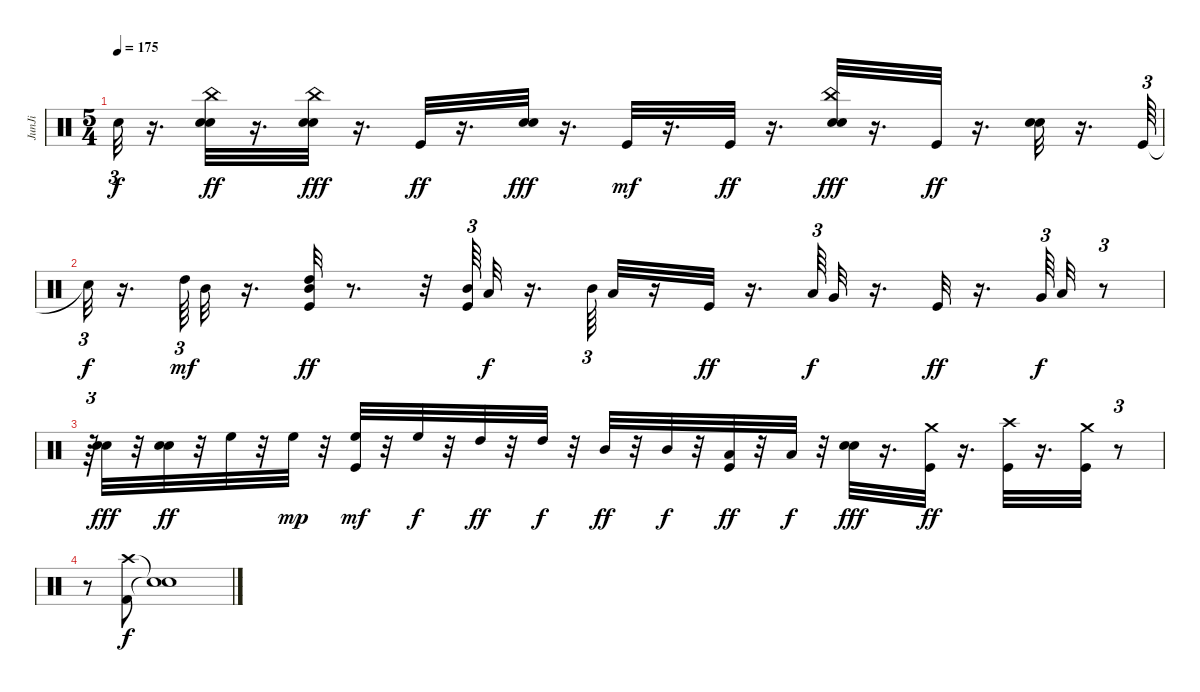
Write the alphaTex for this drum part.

\track ("JunJi" "JunJi") {instrument percussion}
\staff {score}
\articulation defaults
\ts (5 4)
\tempo 175
\clef neutral
\ks c "Snare (hit)"{t}.32{tu (3 2) dy f}
r.16{d} ("China (hit)" "Electric Snare (hit)" "Snare (hit) 2").32{dy ff} r.16{d} ("China (hit)" "Electric Snare (hit)" "Snare (hit) 2").32{dy fff} r.16{d} "Kick (hit)".32{dy ff} r.16{d} ("Electric Snare (hit)" "Snare (hit) 2").32{dy fff} r.16{d} "Kick (hit)".32{dy mf} r.16{d} "Kick (hit)".32{dy ff} r.16{d} ("China (hit)" "Electric Snare (hit)" "Snare (hit) 2").32{dy fff} r.16{d} "Kick (hit)".32{dy ff} r.16{d} ("Electric Snare (hit)" "Snare (hit) 2").32 r.16{d} "Kick (hit)".64{tu (3 2)} |
"Snare (hit)"{t}.32{tu (3 2) dy f} r.16{d} "High Tom (hit)".64{tu (3 2) dy mf} "Mid Tom (hit)".32 r.16{d} ("High Tom (hit)" "Kick (hit)" "Mid Tom (hit)").32{dy ff} r.8{d} r.32 ("Mid Tom (hit)" "Kick (hit)").64{tu (3 2)} "Low Tom (hit)".32{dy f} r.16{d} "Mid Tom (hit)".64{tu (3 2)} "Low Tom (hit)".32 r.16 "Kick (hit)".32{dy ff} r.16{d} "Low Tom (hit)".64{tu (3 2) dy f} "Very Low Tom (hit)".32 r.16{d} "Kick (hit)".32{dy ff} r.16{d} "Very Low Tom (hit)".64{tu (3 2) dy f} "Low Floor Tom (hit)".32 r.8{tu (3 2)} |
r.64{tu (3 2)} ("Electric Snare (hit)" "Snare (hit) 2").32{dy fff} r.32 ("Electric Snare (hit)" "Snare (hit) 2").32{dy ff} r.32 "High Floor Tom (hit)".32 r.32 "High Floor Tom (hit)".32{dy mp} r.32 ("High Floor Tom (hit)" "Kick (hit)").32{dy mf} r.32 "High Floor Tom (hit)".32{dy f} r.32 "High Tom (hit)".32{dy ff} r.32 "High Tom (hit)".32{dy f} r.32 "Mid Tom (hit)".32{dy ff} r.32 "Mid Tom (hit)".32{dy f} r.32 ("Low Tom (hit)" "Kick (hit)").32{dy ff} r.32 "Low Tom (hit)".32{dy f} r.32 ("Electric Snare (hit)" "Snare (hit) 2").32{dy fff} r.16{d} ("Crash medium (hit)" "Kick (hit)").32{dy ff} r.16{d} ("Crash high (hit)" "Kick (hit)").32 r.16{d} ("Crash medium (hit)" "Kick (hit)").32 r.8{tu (3 2)} |
r.8 ("Crash high (hit)" "Kick (hit) 2").8{dy f} ("Snare (hit)"{t} "Snare (hit)"{t}).1
